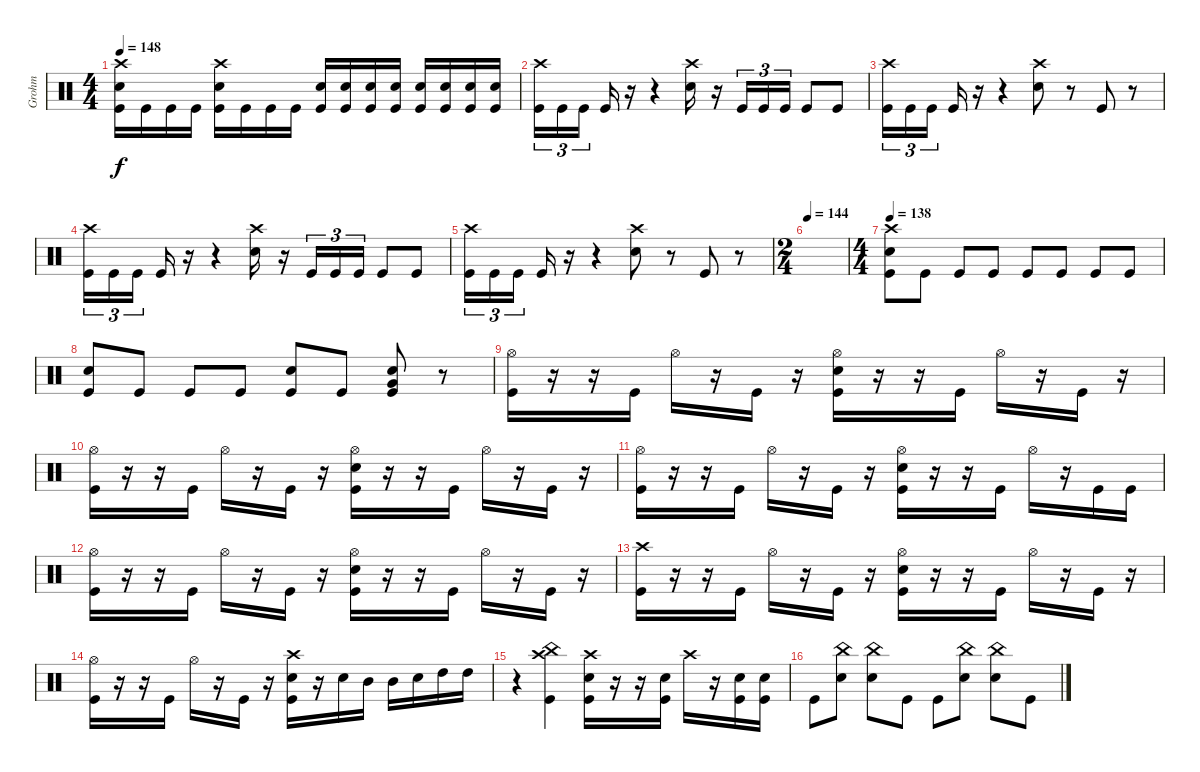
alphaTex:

\track ("Grohm" "Grohm") {instrument percussion}
\staff {score}
\articulation defaults
\ts (4 4)
\tempo 148
\clef neutral
\ks c
("Crash high (hit)" "Snare (hit) 2" "Kick (hit)").16{dy f} "Kick (hit)".16 "Kick (hit)".16 "Kick (hit)".16 ("Crash high (hit)" "Snare (hit) 2" "Kick (hit)").16 "Kick (hit)".16 "Kick (hit)".16 "Kick (hit)".16 ("Snare (hit) 2" "Kick (hit)").16 ("Snare (hit) 2" "Kick (hit)").16 ("Snare (hit) 2" "Kick (hit)").16 ("Snare (hit) 2" "Kick (hit)").16 ("Snare (hit) 2" "Kick (hit)").16 ("Snare (hit) 2" "Kick (hit)").16 ("Snare (hit) 2" "Kick (hit)").16 ("Snare (hit) 2" "Kick (hit)").16 |
("Crash high (hit)" "Kick (hit)").16{tu (3 2)} "Kick (hit)".16{tu (3 2)} "Kick (hit)".16{tu (3 2) beam splitsecondary} "Kick (hit)".16 r.16 r.4 ("Crash high (hit)" "Snare (hit) 2").16 r.16 "Kick (hit)".16{tu (3 2)} "Kick (hit)".16{tu (3 2)} "Kick (hit)".16{tu (3 2)} "Kick (hit)".8 "Kick (hit)".8 |
("Crash high (hit)" "Kick (hit)").16{tu (3 2)} "Kick (hit)".16{tu (3 2)} "Kick (hit)".16{tu (3 2) beam splitsecondary} "Kick (hit)".16 r.16 r.4 ("Crash high (hit)" "Snare (hit) 2").8 r.8 "Kick (hit)".8 r.8 |
("Crash high (hit)" "Kick (hit)").16{tu (3 2)} "Kick (hit)".16{tu (3 2)} "Kick (hit)".16{tu (3 2) beam splitsecondary} "Kick (hit)".16 r.16 r.4 ("Crash high (hit)" "Snare (hit) 2").16 r.16 "Kick (hit)".16{tu (3 2)} "Kick (hit)".16{tu (3 2)} "Kick (hit)".16{tu (3 2)} "Kick (hit)".8 "Kick (hit)".8 |
("Crash high (hit)" "Kick (hit)").16{tu (3 2)} "Kick (hit)".16{tu (3 2)} "Kick (hit)".16{tu (3 2) beam splitsecondary} "Kick (hit)".16 r.16 r.4 ("Crash high (hit)" "Snare (hit) 2").8 r.8 "Kick (hit)".8 r.8 |
\ts (2 4)
\tempo 144
|
\ts (4 4)
\tempo 138
("Crash high (hit)" "Snare (hit) 2" "Kick (hit)").8 "Kick (hit)".8 "Kick (hit)".8 "Kick (hit)".8 "Kick (hit)".8 "Kick (hit)".8 "Kick (hit)".8 "Kick (hit)".8 |
("Snare (hit) 2" "Kick (hit)").8 "Kick (hit)".8 "Kick (hit)".8 "Kick (hit)".8 ("Snare (hit) 2" "Kick (hit)").8 "Kick (hit)".8 ("Very Low Tom (hit)" "Snare (hit) 2" "Kick (hit)").8 r.8 |
("Hi-Hat (open)" "Kick (hit)").16 r.16 r.16 "Kick (hit)".16 "Hi-Hat (open)".16 r.16 "Kick (hit)".16 r.16 ("Hi-Hat (open)" "Snare (hit) 2" "Kick (hit)").16 r.16 r.16 "Kick (hit)".16 "Hi-Hat (open)".16 r.16 "Kick (hit)".16 r.16 |
("Hi-Hat (open)" "Kick (hit)").16 r.16 r.16 "Kick (hit)".16 "Hi-Hat (open)".16 r.16 "Kick (hit)".16 r.16 ("Hi-Hat (open)" "Snare (hit) 2" "Kick (hit)").16 r.16 r.16 "Kick (hit)".16 "Hi-Hat (open)".16 r.16 "Kick (hit)".16 r.16 |
("Hi-Hat (open)" "Kick (hit)").16 r.16 r.16 "Kick (hit)".16 "Hi-Hat (open)".16 r.16 "Kick (hit)".16 r.16 ("Hi-Hat (open)" "Snare (hit) 2" "Kick (hit)").16 r.16 r.16 "Kick (hit)".16 "Hi-Hat (open)".16 r.16 "Kick (hit)".16 "Kick (hit)".16 |
("Hi-Hat (open)" "Kick (hit)").16 r.16 r.16 "Kick (hit)".16 "Hi-Hat (open)".16 r.16 "Kick (hit)".16 r.16 ("Hi-Hat (open)" "Snare (hit) 2" "Kick (hit)").16 r.16 r.16 "Kick (hit)".16 "Hi-Hat (open)".16 r.16 "Kick (hit)".16 r.16 |
("Crash high (hit)" "Kick (hit)").16 r.16 r.16 "Kick (hit)".16 "Hi-Hat (open)".16 r.16 "Kick (hit)".16 r.16 ("Hi-Hat (open)" "Snare (hit) 2" "Kick (hit)").16 r.16 r.16 "Kick (hit)".16 "Hi-Hat (open)".16 r.16 "Kick (hit)".16 r.16 |
("Hi-Hat (open)" "Kick (hit)").16 r.16 r.16 "Kick (hit)".16 "Hi-Hat (open)".16 r.16 "Kick (hit)".16 r.16 ("Crash high (hit)" "Snare (hit) 2" "Kick (hit)").16 r.16 "Snare (hit) 2".16 "Mid Tom (hit)".16 "Mid Tom (hit)".16 "Snare (hit) 2".16 "High Tom (hit)".16 "High Tom (hit)".16 |
r.4 ("China (hit)" "Crash high (hit)" "Kick (hit)").4 ("Crash high (hit)" "Snare (hit) 2" "Kick (hit)").16 r.16 r.16 ("Snare (hit) 2" "Kick (hit)").16 "Crash high (hit)".16 r.16 ("Snare (hit) 2" "Kick (hit)").16 ("Snare (hit) 2" "Kick (hit)").16 |
"Kick (hit)".8 ("China (hit)" "Snare (hit) 2").8 ("China (hit)" "Snare (hit) 2").8 "Kick (hit)".8 "Kick (hit)".8 ("China (hit)" "Snare (hit) 2").8 ("China (hit)" "Snare (hit) 2").8 "Kick (hit)".8
